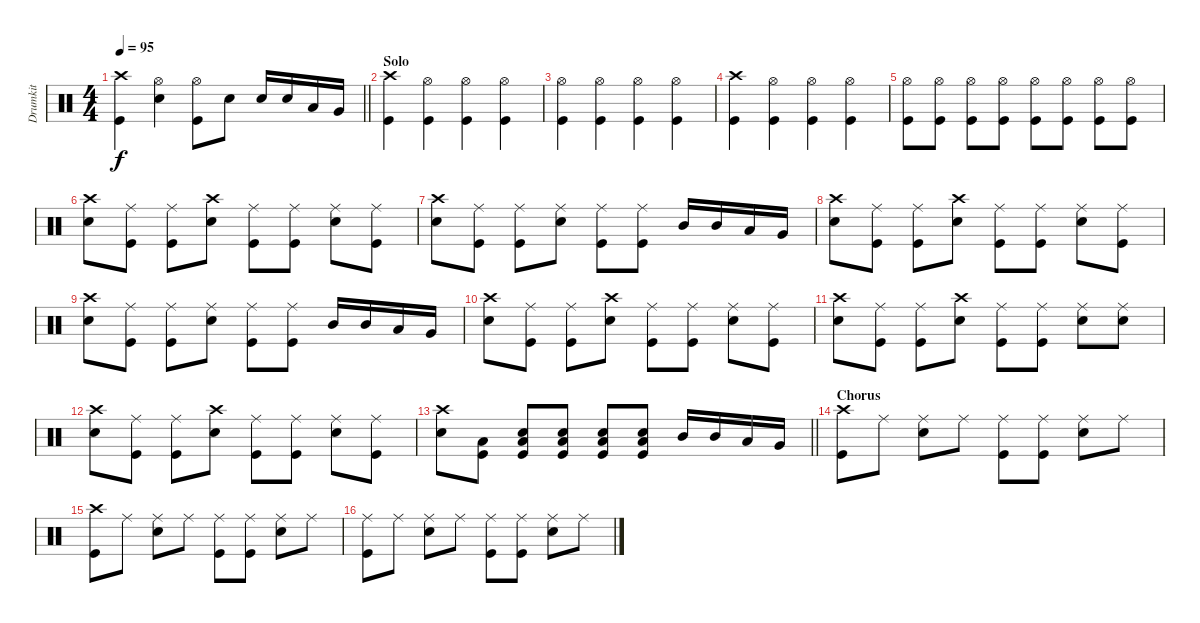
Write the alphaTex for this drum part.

\track ("Drumkit" "Drumkit") {instrument percussion}
\staff {score}
\articulation defaults
\ts (4 4)
\tempo 95
\clef neutral
\barLineRight lightlight
\ks c
("Kick (hit)" "Crash high (hit)").4{dy f} ("Snare (hit) 2" "Hi-Hat (open)").4 ("Hi-Hat (open)" "Kick (hit)").8 "Snare (hit) 2".8 "Snare (hit) 2".16 "Snare (hit) 2".16 "Low Tom (hit)".16 "Very Low Tom (hit)".16 |
\section ("" "Solo")
("Kick (hit)" "Crash high (hit)").4 ("Kick (hit)" "Hi-Hat (open)").4 ("Kick (hit)" "Hi-Hat (open)").4 ("Kick (hit)" "Hi-Hat (open)").4 |
("Kick (hit)" "Hi-Hat (open)").4 ("Kick (hit)" "Hi-Hat (open)").4 ("Kick (hit)" "Hi-Hat (open)").4 ("Kick (hit)" "Hi-Hat (open)").4 |
("Kick (hit)" "Crash high (hit)").4 ("Kick (hit)" "Hi-Hat (open)").4 ("Kick (hit)" "Hi-Hat (open)").4 ("Kick (hit)" "Hi-Hat (open)").4 |
("Kick (hit)" "Hi-Hat (open)").8 ("Kick (hit)" "Hi-Hat (open)").8 ("Kick (hit)" "Hi-Hat (open)").8 ("Kick (hit)" "Hi-Hat (open)").8 ("Kick (hit)" "Hi-Hat (open)").8 ("Kick (hit)" "Hi-Hat (open)").8 ("Kick (hit)" "Hi-Hat (open)").8 ("Kick (hit)" "Hi-Hat (open)").8 |
("Crash high (hit)" "Snare (hit) 2").8 ("Ride (middle)" "Kick (hit)").8 ("Ride (middle)" "Kick (hit)").8 ("Snare (hit) 2" "Crash high (hit)").8 ("Ride (middle)" "Kick (hit)").8 ("Ride (middle)" "Kick (hit)").8 ("Ride (middle)" "Snare (hit) 2").8 ("Ride (middle)" "Kick (hit)").8 |
("Snare (hit) 2" "Crash high (hit)").8 ("Ride (middle)" "Kick (hit)").8 ("Ride (middle)" "Kick (hit)").8 ("Ride (middle)" "Snare (hit) 2").8 ("Ride (middle)" "Kick (hit)").8 ("Ride (middle)" "Kick (hit)").8 "Mid Tom (hit)".16 "Mid Tom (hit)".16 "Low Tom (hit)".16 "Very Low Tom (hit)".16 |
("Crash high (hit)" "Snare (hit) 2").8 ("Ride (middle)" "Kick (hit)").8 ("Ride (middle)" "Kick (hit)").8 ("Snare (hit) 2" "Crash high (hit)").8 ("Ride (middle)" "Kick (hit)").8 ("Ride (middle)" "Kick (hit)").8 ("Ride (middle)" "Snare (hit) 2").8 ("Ride (middle)" "Kick (hit)").8 |
("Snare (hit) 2" "Crash high (hit)").8 ("Ride (middle)" "Kick (hit)").8 ("Ride (middle)" "Kick (hit)").8 ("Ride (middle)" "Snare (hit) 2").8 ("Ride (middle)" "Kick (hit)").8 ("Ride (middle)" "Kick (hit)").8 "Mid Tom (hit)".16 "Mid Tom (hit)".16 "Low Tom (hit)".16 "Very Low Tom (hit)".16 |
("Crash high (hit)" "Snare (hit) 2").8 ("Ride (middle)" "Kick (hit)").8 ("Ride (middle)" "Kick (hit)").8 ("Snare (hit) 2" "Crash high (hit)").8 ("Ride (middle)" "Kick (hit)").8 ("Ride (middle)" "Kick (hit)").8 ("Ride (middle)" "Snare (hit) 2").8 ("Ride (middle)" "Kick (hit)").8 |
("Crash high (hit)" "Snare (hit) 2").8 ("Ride (middle)" "Kick (hit)").8 ("Ride (middle)" "Kick (hit)").8 ("Snare (hit) 2" "Crash high (hit)").8 ("Ride (middle)" "Kick (hit)").8 ("Ride (middle)" "Kick (hit)").8 ("Ride (middle)" "Snare (hit) 2").8 ("Ride (middle)" "Snare (hit) 2").8 |
("Crash high (hit)" "Snare (hit) 2").8 ("Ride (middle)" "Kick (hit)").8 ("Ride (middle)" "Kick (hit)").8 ("Snare (hit) 2" "Crash high (hit)").8 ("Ride (middle)" "Kick (hit)").8 ("Ride (middle)" "Kick (hit)").8 ("Ride (middle)" "Snare (hit) 2").8 ("Ride (middle)" "Kick (hit)").8 |
\barLineRight lightlight
("Snare (hit) 2" "Crash high (hit)").8 ("Kick (hit)" "Low Floor Tom (hit)").8 ("Kick (hit)" "Low Floor Tom (hit)" "Snare (hit) 2").8 ("Snare (hit) 2" "Kick (hit)" "Low Floor Tom (hit)").8 ("Kick (hit)" "Low Floor Tom (hit)" "Snare (hit) 2").8 ("Kick (hit)" "Low Floor Tom (hit)" "Snare (hit) 2").8 "Mid Tom (hit)".16 "Mid Tom (hit)".16 "Low Tom (hit)".16 "Very Low Tom (hit)".16 |
\section ("" "Chorus")
("Kick (hit)" "Crash high (hit)").8 "Ride (middle)".8 ("Snare (hit) 2" "Ride (middle)").8 "Ride (middle)".8 ("Kick (hit)" "Ride (middle)").8 ("Kick (hit)" "Ride (middle)").8 ("Snare (hit) 2" "Ride (middle)").8 "Ride (middle)".8 |
("Kick (hit)" "Crash high (hit)").8 "Ride (middle)".8 ("Snare (hit) 2" "Ride (middle)").8 "Ride (middle)".8 ("Kick (hit)" "Ride (middle)").8 ("Kick (hit)" "Ride (middle)").8 ("Snare (hit) 2" "Ride (middle)").8 "Ride (middle)".8 |
("Kick (hit)" "Ride (middle)").8 "Ride (middle)".8 ("Snare (hit) 2" "Ride (middle)").8 "Ride (middle)".8 ("Kick (hit)" "Ride (middle)").8 ("Kick (hit)" "Ride (middle)").8 ("Snare (hit) 2" "Ride (middle)").8 "Ride (middle)".8
